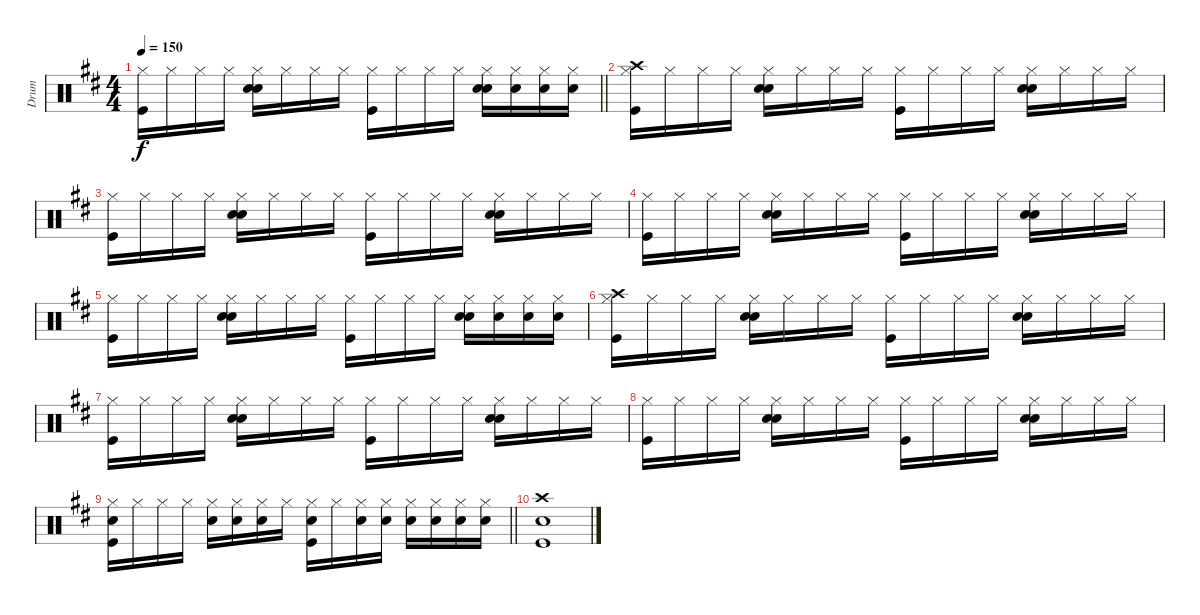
\track ("Drum" "Drum") {instrument percussion}
\staff {score}
\articulation defaults
\ts (4 4)
\tempo 150
\clef neutral
\barLineRight lightlight
\ks d
("Hi-Hat (closed)" "Kick (hit)").16{dy f} "Hi-Hat (closed)".16 "Hi-Hat (closed)".16 "Hi-Hat (closed)".16 ("Hi-Hat (closed)" "Snare (hit) 2" "Hand Clap (hit)").16 "Hi-Hat (closed)".16 "Hi-Hat (closed)".16 "Hi-Hat (closed)".16 ("Hi-Hat (closed)" "Kick (hit)").16 "Hi-Hat (closed)".16 "Hi-Hat (closed)".16 "Hi-Hat (closed)".16 ("Hi-Hat (closed)" "Snare (hit) 2" "Hand Clap (hit)").16 ("Hi-Hat (closed)" "Snare (hit) 2").16 ("Hi-Hat (closed)" "Snare (hit) 2").16 ("Hi-Hat (closed)" "Snare (hit) 2").16 |
("Crash high (hit)" "Hi-Hat (closed)" "Kick (hit)").16 "Hi-Hat (closed)".16 "Hi-Hat (closed)".16 "Hi-Hat (closed)".16 ("Hi-Hat (closed)" "Snare (hit) 2" "Hand Clap (hit)").16 "Hi-Hat (closed)".16 "Hi-Hat (closed)".16 "Hi-Hat (closed)".16 ("Hi-Hat (closed)" "Kick (hit)").16 "Hi-Hat (closed)".16 "Hi-Hat (closed)".16 "Hi-Hat (closed)".16 ("Hi-Hat (closed)" "Snare (hit) 2" "Hand Clap (hit)").16 "Hi-Hat (closed)".16 "Hi-Hat (closed)".16 "Hi-Hat (closed)".16 |
("Hi-Hat (closed)" "Kick (hit)").16 "Hi-Hat (closed)".16 "Hi-Hat (closed)".16 "Hi-Hat (closed)".16 ("Hi-Hat (closed)" "Snare (hit) 2" "Hand Clap (hit)").16 "Hi-Hat (closed)".16 "Hi-Hat (closed)".16 "Hi-Hat (closed)".16 ("Hi-Hat (closed)" "Kick (hit)").16 "Hi-Hat (closed)".16 "Hi-Hat (closed)".16 "Hi-Hat (closed)".16 ("Hi-Hat (closed)" "Snare (hit) 2" "Hand Clap (hit)").16 "Hi-Hat (closed)".16 "Hi-Hat (closed)".16 "Hi-Hat (closed)".16 |
("Hi-Hat (closed)" "Kick (hit)").16 "Hi-Hat (closed)".16 "Hi-Hat (closed)".16 "Hi-Hat (closed)".16 ("Hi-Hat (closed)" "Snare (hit) 2" "Hand Clap (hit)").16 "Hi-Hat (closed)".16 "Hi-Hat (closed)".16 "Hi-Hat (closed)".16 ("Hi-Hat (closed)" "Kick (hit)").16 "Hi-Hat (closed)".16 "Hi-Hat (closed)".16 "Hi-Hat (closed)".16 ("Hi-Hat (closed)" "Snare (hit) 2" "Hand Clap (hit)").16 "Hi-Hat (closed)".16 "Hi-Hat (closed)".16 "Hi-Hat (closed)".16 |
("Hi-Hat (closed)" "Kick (hit)").16 "Hi-Hat (closed)".16 "Hi-Hat (closed)".16 "Hi-Hat (closed)".16 ("Hi-Hat (closed)" "Snare (hit) 2" "Hand Clap (hit)").16 "Hi-Hat (closed)".16 "Hi-Hat (closed)".16 "Hi-Hat (closed)".16 ("Hi-Hat (closed)" "Kick (hit)").16 "Hi-Hat (closed)".16 "Hi-Hat (closed)".16 "Hi-Hat (closed)".16 ("Hi-Hat (closed)" "Snare (hit) 2" "Hand Clap (hit)").16 ("Hi-Hat (closed)" "Snare (hit) 2").16 ("Hi-Hat (closed)" "Snare (hit) 2").16 ("Hi-Hat (closed)" "Snare (hit) 2").16 |
("Crash high (hit)" "Hi-Hat (closed)" "Kick (hit)").16 "Hi-Hat (closed)".16 "Hi-Hat (closed)".16 "Hi-Hat (closed)".16 ("Hi-Hat (closed)" "Snare (hit) 2" "Hand Clap (hit)").16 "Hi-Hat (closed)".16 "Hi-Hat (closed)".16 "Hi-Hat (closed)".16 ("Hi-Hat (closed)" "Kick (hit)").16 "Hi-Hat (closed)".16 "Hi-Hat (closed)".16 "Hi-Hat (closed)".16 ("Hi-Hat (closed)" "Snare (hit) 2" "Hand Clap (hit)").16 "Hi-Hat (closed)".16 "Hi-Hat (closed)".16 "Hi-Hat (closed)".16 |
("Hi-Hat (closed)" "Kick (hit)").16 "Hi-Hat (closed)".16 "Hi-Hat (closed)".16 "Hi-Hat (closed)".16 ("Hi-Hat (closed)" "Snare (hit) 2" "Hand Clap (hit)").16 "Hi-Hat (closed)".16 "Hi-Hat (closed)".16 "Hi-Hat (closed)".16 ("Hi-Hat (closed)" "Kick (hit)").16 "Hi-Hat (closed)".16 "Hi-Hat (closed)".16 "Hi-Hat (closed)".16 ("Hi-Hat (closed)" "Snare (hit) 2" "Hand Clap (hit)").16 "Hi-Hat (closed)".16 "Hi-Hat (closed)".16 "Hi-Hat (closed)".16 |
("Hi-Hat (closed)" "Kick (hit)").16 "Hi-Hat (closed)".16 "Hi-Hat (closed)".16 "Hi-Hat (closed)".16 ("Hi-Hat (closed)" "Snare (hit) 2" "Hand Clap (hit)").16 "Hi-Hat (closed)".16 "Hi-Hat (closed)".16 "Hi-Hat (closed)".16 ("Hi-Hat (closed)" "Kick (hit)").16 "Hi-Hat (closed)".16 "Hi-Hat (closed)".16 "Hi-Hat (closed)".16 ("Hi-Hat (closed)" "Snare (hit) 2" "Hand Clap (hit)").16 "Hi-Hat (closed)".16 "Hi-Hat (closed)".16 "Hi-Hat (closed)".16 |
\barLineRight lightlight
("Hi-Hat (closed)" "Kick (hit)" "Snare (hit) 2").16 "Hi-Hat (closed)".16 "Hi-Hat (closed)".16 "Hi-Hat (closed)".16 ("Hi-Hat (closed)" "Snare (hit) 2").16 ("Hi-Hat (closed)" "Snare (hit) 2").16 ("Hi-Hat (closed)" "Snare (hit) 2").16 "Hi-Hat (closed)".16 ("Hi-Hat (closed)" "Kick (hit)" "Snare (hit) 2").16 "Hi-Hat (closed)".16 ("Hi-Hat (closed)" "Snare (hit) 2").16 ("Hi-Hat (closed)" "Snare (hit) 2").16 ("Hi-Hat (closed)" "Snare (hit) 2").16 ("Hi-Hat (closed)" "Snare (hit) 2").16 ("Hi-Hat (closed)" "Snare (hit) 2").16 ("Hi-Hat (closed)" "Snare (hit) 2").16 |
("Crash high (hit)" "Kick (hit)" "Snare (hit) 2").1
